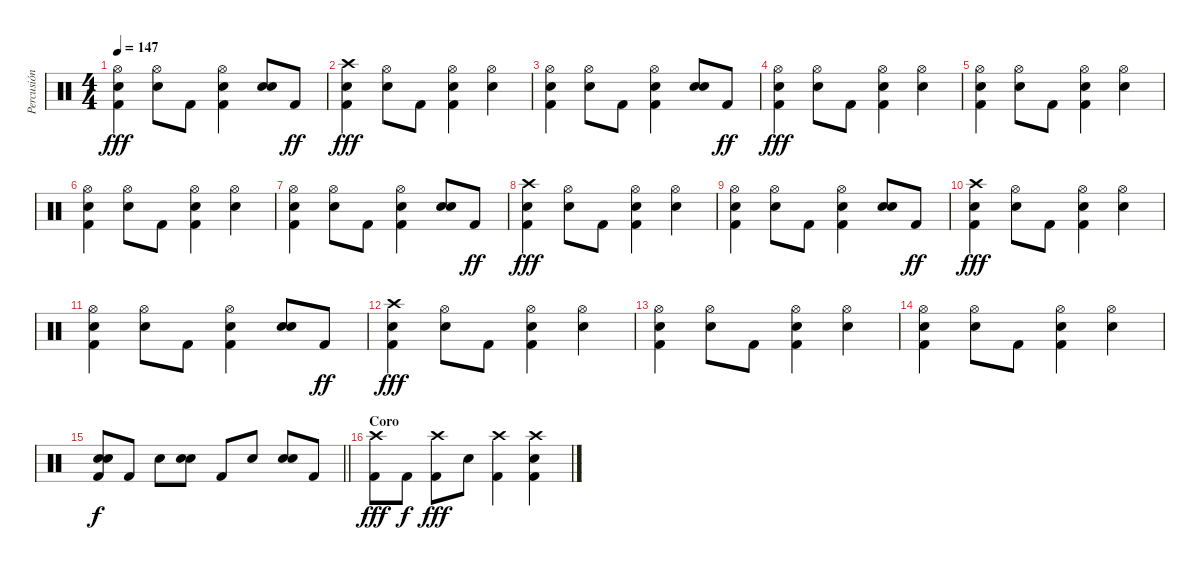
\track ("Percusión" "Percusión") {instrument percussion}
\staff {score}
\articulation defaults
\ts (4 4)
\tempo 147
\clef neutral
\ks c
("Hi-Hat (open)" "Electric Snare (hit)" "Kick (hit) 2").4{dy fff} ("Hi-Hat (open)" "Electric Snare (hit)").8 "Kick (hit) 2".8 ("Hi-Hat (open)" "Electric Snare (hit)" "Kick (hit) 2").4 ("Electric Snare (hit)" "Electric Snare (hit)").8{bd 240} "Kick (hit) 2".8{dy ff} |
("Crash high (hit)" "Electric Snare (hit)" "Kick (hit) 2").4{dy fff} ("Hi-Hat (open)" "Electric Snare (hit)").8 "Kick (hit) 2".8 ("Hi-Hat (open)" "Electric Snare (hit)" "Kick (hit) 2").4 ("Hi-Hat (open)" "Electric Snare (hit)").4 |
("Hi-Hat (open)" "Electric Snare (hit)" "Kick (hit) 2").4 ("Hi-Hat (open)" "Electric Snare (hit)").8 "Kick (hit) 2".8 ("Hi-Hat (open)" "Electric Snare (hit)" "Kick (hit) 2").4 ("Electric Snare (hit)" "Electric Snare (hit)").8{bd 240} "Kick (hit) 2".8{dy ff} |
("Hi-Hat (open)" "Electric Snare (hit)" "Kick (hit) 2").4{dy fff} ("Hi-Hat (open)" "Electric Snare (hit)").8 "Kick (hit) 2".8 ("Hi-Hat (open)" "Electric Snare (hit)" "Kick (hit) 2").4 ("Hi-Hat (open)" "Electric Snare (hit)").4 |
("Hi-Hat (open)" "Electric Snare (hit)" "Kick (hit) 2").4 ("Hi-Hat (open)" "Electric Snare (hit)").8 "Kick (hit) 2".8 ("Hi-Hat (open)" "Electric Snare (hit)" "Kick (hit) 2").4 ("Hi-Hat (open)" "Electric Snare (hit)").4 |
("Hi-Hat (open)" "Electric Snare (hit)" "Kick (hit) 2").4 ("Hi-Hat (open)" "Electric Snare (hit)").8 "Kick (hit) 2".8 ("Hi-Hat (open)" "Electric Snare (hit)" "Kick (hit) 2").4 ("Hi-Hat (open)" "Electric Snare (hit)").4 |
("Hi-Hat (open)" "Electric Snare (hit)" "Kick (hit) 2").4 ("Hi-Hat (open)" "Electric Snare (hit)").8 "Kick (hit) 2".8 ("Hi-Hat (open)" "Electric Snare (hit)" "Kick (hit) 2").4 ("Electric Snare (hit)" "Electric Snare (hit)").8{bd 240} "Kick (hit) 2".8{dy ff} |
("Crash high (hit)" "Electric Snare (hit)" "Kick (hit) 2").4{dy fff} ("Hi-Hat (open)" "Electric Snare (hit)").8 "Kick (hit) 2".8 ("Hi-Hat (open)" "Electric Snare (hit)" "Kick (hit) 2").4 ("Hi-Hat (open)" "Electric Snare (hit)").4 |
("Hi-Hat (open)" "Electric Snare (hit)" "Kick (hit) 2").4 ("Hi-Hat (open)" "Electric Snare (hit)").8 "Kick (hit) 2".8 ("Hi-Hat (open)" "Electric Snare (hit)" "Kick (hit) 2").4 ("Electric Snare (hit)" "Electric Snare (hit)").8{bd 240} "Kick (hit) 2".8{dy ff} |
("Crash high (hit)" "Electric Snare (hit)" "Kick (hit) 2").4{dy fff} ("Hi-Hat (open)" "Electric Snare (hit)").8 "Kick (hit) 2".8 ("Hi-Hat (open)" "Electric Snare (hit)" "Kick (hit) 2").4 ("Hi-Hat (open)" "Electric Snare (hit)").4 |
("Hi-Hat (open)" "Electric Snare (hit)" "Kick (hit) 2").4 ("Hi-Hat (open)" "Electric Snare (hit)").8 "Kick (hit) 2".8 ("Hi-Hat (open)" "Electric Snare (hit)" "Kick (hit) 2").4 ("Electric Snare (hit)" "Electric Snare (hit)").8{bd 240} "Kick (hit) 2".8{dy ff} |
("Crash high (hit)" "Electric Snare (hit)" "Kick (hit) 2").4{dy fff} ("Hi-Hat (open)" "Electric Snare (hit)").8 "Kick (hit) 2".8 ("Hi-Hat (open)" "Electric Snare (hit)" "Kick (hit) 2").4 ("Hi-Hat (open)" "Electric Snare (hit)").4 |
("Hi-Hat (open)" "Electric Snare (hit)" "Kick (hit) 2").4 ("Hi-Hat (open)" "Electric Snare (hit)").8 "Kick (hit) 2".8 ("Hi-Hat (open)" "Electric Snare (hit)" "Kick (hit) 2").4 ("Hi-Hat (open)" "Electric Snare (hit)").4 |
("Hi-Hat (open)" "Electric Snare (hit)" "Kick (hit) 2").4 ("Hi-Hat (open)" "Electric Snare (hit)").8 "Kick (hit) 2".8 ("Hi-Hat (open)" "Electric Snare (hit)" "Kick (hit) 2").4 ("Hi-Hat (open)" "Electric Snare (hit)").4 |
\barLineRight lightlight
("Electric Snare (hit)" "Electric Snare (hit)" "Kick (hit) 2").8{bd 240 dy f} "Kick (hit) 2".8 "Electric Snare (hit)".8 ("Electric Snare (hit)" "Electric Snare (hit)").8{bd 240} "Kick (hit) 2".8 "Electric Snare (hit)".8 ("Electric Snare (hit)" "Electric Snare (hit)").8{bd 240} "Kick (hit) 2".8 |
\section ("" "Coro")
("Crash high (hit)" "Kick (hit) 2").8{dy fff} "Kick (hit) 2".8{dy f} ("Crash high (hit)" "Kick (hit) 2").8{dy fff} "Electric Snare (hit)".8 ("Crash high (hit)" "Kick (hit) 2").4 ("Crash high (hit)" "Electric Snare (hit)" "Kick (hit) 2").4
